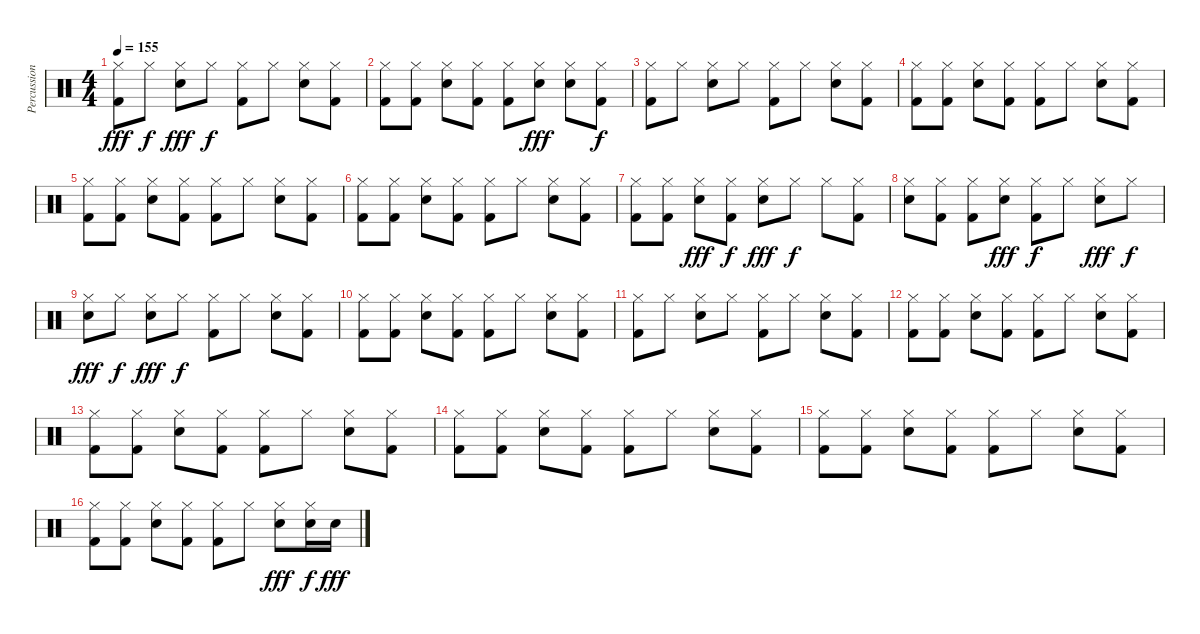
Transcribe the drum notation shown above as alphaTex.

\track ("Percussions" "Percussion") {instrument percussion}
\staff {score}
\articulation defaults
\ts (4 4)
\tempo 155
\clef neutral
\ks c
("Hi-Hat (closed)" "Kick (hit) 2").8{dy fff} "Hi-Hat (closed)".8{dy f} ("Hi-Hat (closed)" "Electric Snare (hit)").8{dy fff} "Hi-Hat (closed)".8{dy f} ("Hi-Hat (closed)" "Kick (hit) 2").8 "Hi-Hat (closed)".8 ("Hi-Hat (closed)" "Electric Snare (hit)").8 ("Hi-Hat (closed)" "Kick (hit) 2").8 |
("Hi-Hat (closed)" "Kick (hit) 2").8 ("Hi-Hat (closed)" "Kick (hit) 2").8 ("Hi-Hat (closed)" "Electric Snare (hit)").8 ("Hi-Hat (closed)" "Kick (hit) 2").8 ("Hi-Hat (closed)" "Kick (hit) 2").8 ("Hi-Hat (closed)" "Electric Snare (hit)").8{dy fff} ("Hi-Hat (closed)" "Electric Snare (hit)").8 ("Hi-Hat (closed)" "Kick (hit) 2").8{dy f} |
("Hi-Hat (closed)" "Kick (hit) 2").8 "Hi-Hat (closed)".8 ("Hi-Hat (closed)" "Electric Snare (hit)").8 "Hi-Hat (closed)".8 ("Hi-Hat (closed)" "Kick (hit) 2").8 "Hi-Hat (closed)".8 ("Hi-Hat (closed)" "Electric Snare (hit)").8 ("Hi-Hat (closed)" "Kick (hit) 2").8 |
("Hi-Hat (closed)" "Kick (hit) 2").8 ("Hi-Hat (closed)" "Kick (hit) 2").8 ("Hi-Hat (closed)" "Electric Snare (hit)").8 ("Hi-Hat (closed)" "Kick (hit) 2").8 ("Hi-Hat (closed)" "Kick (hit) 2").8 "Hi-Hat (closed)".8 ("Hi-Hat (closed)" "Electric Snare (hit)").8 ("Hi-Hat (closed)" "Kick (hit) 2").8 |
("Hi-Hat (closed)" "Kick (hit) 2").8 ("Hi-Hat (closed)" "Kick (hit) 2").8 ("Hi-Hat (closed)" "Electric Snare (hit)").8 ("Hi-Hat (closed)" "Kick (hit) 2").8 ("Hi-Hat (closed)" "Kick (hit) 2").8 "Hi-Hat (closed)".8 ("Hi-Hat (closed)" "Electric Snare (hit)").8 ("Hi-Hat (closed)" "Kick (hit) 2").8 |
("Hi-Hat (closed)" "Kick (hit) 2").8 ("Hi-Hat (closed)" "Kick (hit) 2").8 ("Hi-Hat (closed)" "Electric Snare (hit)").8 ("Hi-Hat (closed)" "Kick (hit) 2").8 ("Hi-Hat (closed)" "Kick (hit) 2").8 "Hi-Hat (closed)".8 ("Hi-Hat (closed)" "Electric Snare (hit)").8 ("Hi-Hat (closed)" "Kick (hit) 2").8 |
("Hi-Hat (closed)" "Kick (hit) 2").8 ("Hi-Hat (closed)" "Kick (hit) 2").8 ("Hi-Hat (closed)" "Electric Snare (hit)").8{dy fff} ("Hi-Hat (closed)" "Kick (hit) 2").8{dy f} ("Hi-Hat (closed)" "Electric Snare (hit)").8{dy fff} "Hi-Hat (closed)".8{dy f} "Hi-Hat (closed)".8 ("Hi-Hat (closed)" "Kick (hit) 2").8 |
("Hi-Hat (closed)" "Electric Snare (hit)").8 ("Hi-Hat (closed)" "Kick (hit) 2").8 ("Hi-Hat (closed)" "Kick (hit) 2").8 ("Hi-Hat (closed)" "Electric Snare (hit)").8{dy fff} ("Hi-Hat (closed)" "Kick (hit) 2").8{dy f} "Hi-Hat (closed)".8 ("Hi-Hat (closed)" "Electric Snare (hit)").8{dy fff} "Hi-Hat (closed)".8{dy f} |
("Hi-Hat (closed)" "Electric Snare (hit)").8{dy fff} "Hi-Hat (closed)".8{dy f} ("Hi-Hat (closed)" "Electric Snare (hit)").8{dy fff} "Hi-Hat (closed)".8{dy f} ("Hi-Hat (closed)" "Kick (hit) 2").8 "Hi-Hat (closed)".8 ("Hi-Hat (closed)" "Electric Snare (hit)").8 ("Hi-Hat (closed)" "Kick (hit) 2").8 |
("Hi-Hat (closed)" "Kick (hit) 2").8 ("Hi-Hat (closed)" "Kick (hit) 2").8 ("Hi-Hat (closed)" "Electric Snare (hit)").8 ("Hi-Hat (closed)" "Kick (hit) 2").8 ("Hi-Hat (closed)" "Kick (hit) 2").8 "Hi-Hat (closed)".8 ("Hi-Hat (closed)" "Electric Snare (hit)").8 ("Hi-Hat (closed)" "Kick (hit) 2").8 |
("Hi-Hat (closed)" "Kick (hit) 2").8 "Hi-Hat (closed)".8 ("Hi-Hat (closed)" "Electric Snare (hit)").8 "Hi-Hat (closed)".8 ("Hi-Hat (closed)" "Kick (hit) 2").8 "Hi-Hat (closed)".8 ("Hi-Hat (closed)" "Electric Snare (hit)").8 ("Hi-Hat (closed)" "Kick (hit) 2").8 |
("Hi-Hat (closed)" "Kick (hit) 2").8 ("Hi-Hat (closed)" "Kick (hit) 2").8 ("Hi-Hat (closed)" "Electric Snare (hit)").8 ("Hi-Hat (closed)" "Kick (hit) 2").8 ("Hi-Hat (closed)" "Kick (hit) 2").8 "Hi-Hat (closed)".8 ("Hi-Hat (closed)" "Electric Snare (hit)").8 ("Hi-Hat (closed)" "Kick (hit) 2").8 |
("Hi-Hat (closed)" "Kick (hit) 2").8 ("Hi-Hat (closed)" "Kick (hit) 2").8 ("Hi-Hat (closed)" "Electric Snare (hit)").8 ("Hi-Hat (closed)" "Kick (hit) 2").8 ("Hi-Hat (closed)" "Kick (hit) 2").8 "Hi-Hat (closed)".8 ("Hi-Hat (closed)" "Electric Snare (hit)").8 ("Hi-Hat (closed)" "Kick (hit) 2").8 |
("Hi-Hat (closed)" "Kick (hit) 2").8 ("Hi-Hat (closed)" "Kick (hit) 2").8 ("Hi-Hat (closed)" "Electric Snare (hit)").8 ("Hi-Hat (closed)" "Kick (hit) 2").8 ("Hi-Hat (closed)" "Kick (hit) 2").8 "Hi-Hat (closed)".8 ("Hi-Hat (closed)" "Electric Snare (hit)").8 ("Hi-Hat (closed)" "Kick (hit) 2").8 |
("Hi-Hat (closed)" "Kick (hit) 2").8 ("Hi-Hat (closed)" "Kick (hit) 2").8 ("Hi-Hat (closed)" "Electric Snare (hit)").8 ("Hi-Hat (closed)" "Kick (hit) 2").8 ("Hi-Hat (closed)" "Kick (hit) 2").8 "Hi-Hat (closed)".8 ("Hi-Hat (closed)" "Electric Snare (hit)").8 ("Hi-Hat (closed)" "Kick (hit) 2").8 |
("Hi-Hat (closed)" "Kick (hit) 2").8 ("Hi-Hat (closed)" "Kick (hit) 2").8 ("Hi-Hat (closed)" "Electric Snare (hit)").8 ("Hi-Hat (closed)" "Kick (hit) 2").8 ("Hi-Hat (closed)" "Kick (hit) 2").8 "Hi-Hat (closed)".8 ("Hi-Hat (closed)" "Electric Snare (hit)").8{dy fff} ("Hi-Hat (closed)" "Electric Snare (hit)").16{dy f} "Electric Snare (hit)".16{dy fff}
